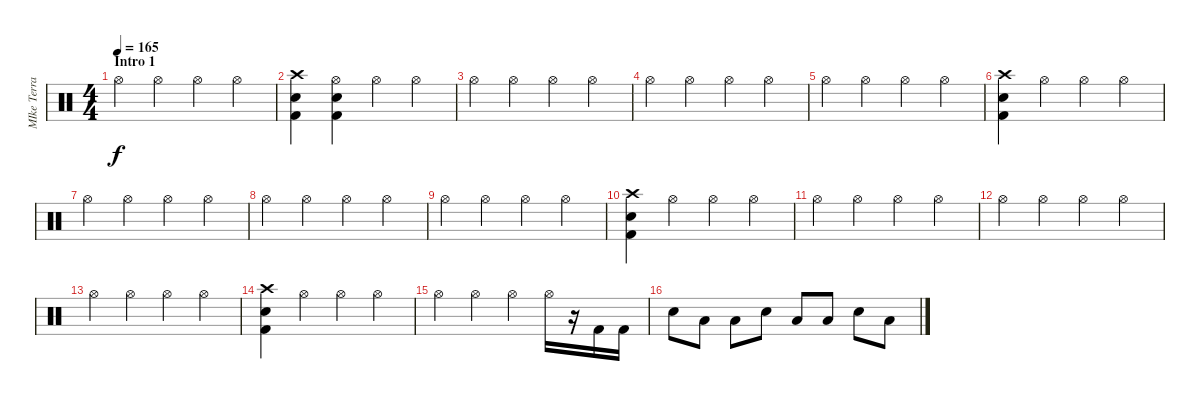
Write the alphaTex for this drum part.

\track ("MIke Terrana - Batteria" "MIke Terra") {instrument percussion}
\staff {score}
\articulation defaults
\ts (4 4)
\section ("" "Intro 1")
\tempo 165
\clef neutral
\ks c "Hi-Hat (open)".4{dy f} "Hi-Hat (open)".4 "Hi-Hat (open)".4 "Hi-Hat (open)".4
|
("Kick (hit) 2" "Electric Snare (hit)" "Crash high (hit)").4 ("Kick (hit) 2" "Electric Snare (hit)" "Hi-Hat (open)").4 "Hi-Hat (open)".4 "Hi-Hat (open)".4 |
"Hi-Hat (open)".4 "Hi-Hat (open)".4 "Hi-Hat (open)".4 "Hi-Hat (open)".4 |
"Hi-Hat (open)".4 "Hi-Hat (open)".4 "Hi-Hat (open)".4 "Hi-Hat (open)".4 |
"Hi-Hat (open)".4 "Hi-Hat (open)".4 "Hi-Hat (open)".4 "Hi-Hat (open)".4 |
("Kick (hit) 2" "Electric Snare (hit)" "Crash high (hit)").4 "Hi-Hat (open)".4 "Hi-Hat (open)".4 "Hi-Hat (open)".4 |
"Hi-Hat (open)".4 "Hi-Hat (open)".4 "Hi-Hat (open)".4 "Hi-Hat (open)".4 |
"Hi-Hat (open)".4 "Hi-Hat (open)".4 "Hi-Hat (open)".4 "Hi-Hat (open)".4 |
"Hi-Hat (open)".4 "Hi-Hat (open)".4 "Hi-Hat (open)".4 "Hi-Hat (open)".4 |
("Kick (hit) 2" "Electric Snare (hit)" "Crash high (hit)").4 "Hi-Hat (open)".4 "Hi-Hat (open)".4 "Hi-Hat (open)".4 |
"Hi-Hat (open)".4 "Hi-Hat (open)".4 "Hi-Hat (open)".4 "Hi-Hat (open)".4 |
"Hi-Hat (open)".4 "Hi-Hat (open)".4 "Hi-Hat (open)".4 "Hi-Hat (open)".4 |
"Hi-Hat (open)".4 "Hi-Hat (open)".4 "Hi-Hat (open)".4 "Hi-Hat (open)".4 |
("Kick (hit) 2" "Electric Snare (hit)" "Crash high (hit)").4 "Hi-Hat (open)".4 "Hi-Hat (open)".4 "Hi-Hat (open)".4 |
"Hi-Hat (open)".4 "Hi-Hat (open)".4 "Hi-Hat (open)".4 "Hi-Hat (open)".16 r.16 "Kick (hit) 2".16 "Kick (hit) 2".16 |
"Electric Snare (hit)".8 "Low Tom (hit)".8 "Low Tom (hit)".8 "Electric Snare (hit)".8 "Low Tom (hit)".8 "Low Tom (hit)".8 "Electric Snare (hit)".8 "Low Tom (hit)".8
